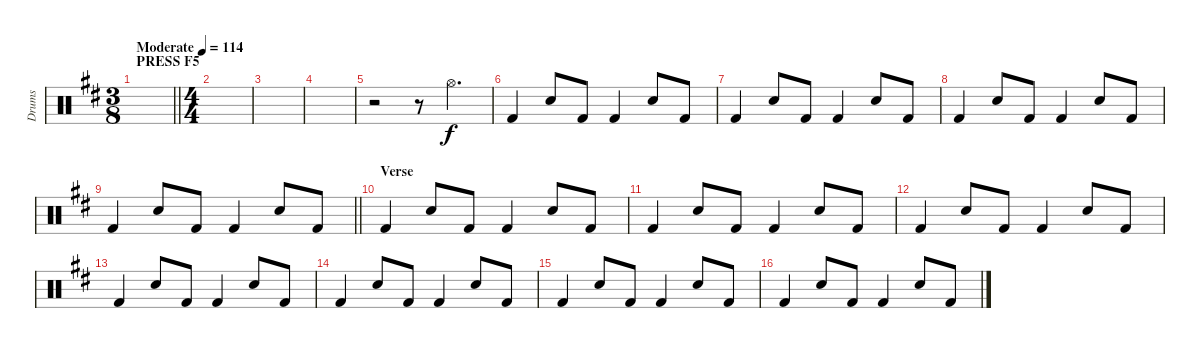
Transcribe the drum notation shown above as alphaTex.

\track ("Drums" "Drums") {instrument percussion}
\staff {score}
\articulation defaults
\ts (3 8)
\section ("" "PRESS F5")
\tempo (114 "Moderate")
\clef neutral
\barLineRight lightlight
\ks bminor
|
\ts (4 4)
|
|
|
r.2 r.8 "Hi-Hat (open)".4{d} |
"Kick (hit) 2".4 "Snare (hit) 2".8 "Kick (hit) 2".8 "Kick (hit) 2".4 "Snare (hit) 2".8 "Kick (hit) 2".8 |
"Kick (hit) 2".4 "Snare (hit) 2".8 "Kick (hit) 2".8 "Kick (hit) 2".4 "Snare (hit) 2".8 "Kick (hit) 2".8 |
"Kick (hit) 2".4 "Snare (hit) 2".8 "Kick (hit) 2".8 "Kick (hit) 2".4 "Snare (hit) 2".8 "Kick (hit) 2".8 |
\barLineRight lightlight "Kick (hit) 2".4 "Snare (hit) 2".8 "Kick (hit) 2".8 "Kick (hit) 2".4 "Snare (hit) 2".8 "Kick (hit) 2".8
|
\section ("" "Verse")
"Kick (hit) 2".4 "Snare (hit) 2".8 "Kick (hit) 2".8 "Kick (hit) 2".4 "Snare (hit) 2".8 "Kick (hit) 2".8 |
"Kick (hit) 2".4 "Snare (hit) 2".8 "Kick (hit) 2".8 "Kick (hit) 2".4 "Snare (hit) 2".8 "Kick (hit) 2".8 |
"Kick (hit) 2".4 "Snare (hit) 2".8 "Kick (hit) 2".8 "Kick (hit) 2".4 "Snare (hit) 2".8 "Kick (hit) 2".8 |
"Kick (hit) 2".4 "Snare (hit) 2".8 "Kick (hit) 2".8 "Kick (hit) 2".4 "Snare (hit) 2".8 "Kick (hit) 2".8 |
"Kick (hit) 2".4 "Snare (hit) 2".8 "Kick (hit) 2".8 "Kick (hit) 2".4 "Snare (hit) 2".8 "Kick (hit) 2".8 |
"Kick (hit) 2".4 "Snare (hit) 2".8 "Kick (hit) 2".8 "Kick (hit) 2".4 "Snare (hit) 2".8 "Kick (hit) 2".8 |
"Kick (hit) 2".4 "Snare (hit) 2".8 "Kick (hit) 2".8 "Kick (hit) 2".4 "Snare (hit) 2".8 "Kick (hit) 2".8
